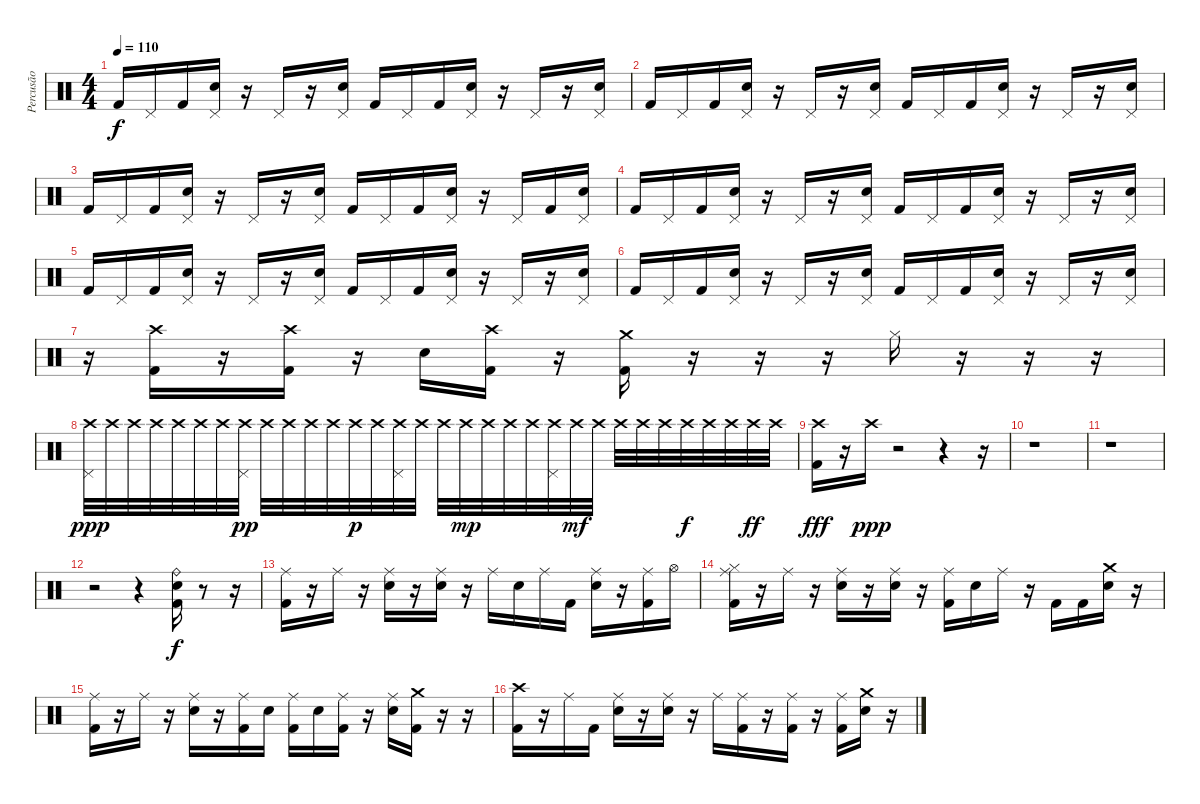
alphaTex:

\track ("Percusão" "Percusão") {instrument percussion}
\staff {score}
\articulation defaults
\ts (4 4)
\tempo 110
\clef neutral
\ks c "Kick (hit) 2".16{dy f} "Pedal Hi-Hat (hit)".16 "Kick (hit) 2".16
("Pedal Hi-Hat (hit)" "Snare (hit) 2").16 r.16 "Pedal Hi-Hat (hit)".16 r.16 ("Pedal Hi-Hat (hit)" "Snare (hit) 2").16 "Kick (hit) 2".16 "Pedal Hi-Hat (hit)".16 "Kick (hit) 2".16 ("Pedal Hi-Hat (hit)" "Snare (hit) 2").16 r.16 "Pedal Hi-Hat (hit)".16 r.16 ("Pedal Hi-Hat (hit)" "Snare (hit) 2").16 |
"Kick (hit) 2".16 "Pedal Hi-Hat (hit)".16 "Kick (hit) 2".16 ("Pedal Hi-Hat (hit)" "Snare (hit) 2").16 r.16 "Pedal Hi-Hat (hit)".16 r.16 ("Pedal Hi-Hat (hit)" "Snare (hit) 2").16 "Kick (hit) 2".16 "Pedal Hi-Hat (hit)".16 "Kick (hit) 2".16 ("Pedal Hi-Hat (hit)" "Snare (hit) 2").16 r.16 "Pedal Hi-Hat (hit)".16 r.16 ("Pedal Hi-Hat (hit)" "Snare (hit) 2").16 |
"Kick (hit) 2".16 "Pedal Hi-Hat (hit)".16 "Kick (hit) 2".16 ("Pedal Hi-Hat (hit)" "Snare (hit) 2").16 r.16 "Pedal Hi-Hat (hit)".16 r.16 ("Pedal Hi-Hat (hit)" "Snare (hit) 2").16 "Kick (hit) 2".16 "Pedal Hi-Hat (hit)".16 "Kick (hit) 2".16 ("Pedal Hi-Hat (hit)" "Snare (hit) 2").16 r.16 "Pedal Hi-Hat (hit)".16 "Kick (hit) 2".16 ("Pedal Hi-Hat (hit)" "Snare (hit) 2").16 |
"Kick (hit) 2".16 "Pedal Hi-Hat (hit)".16 "Kick (hit) 2".16 ("Pedal Hi-Hat (hit)" "Snare (hit) 2").16 r.16 "Pedal Hi-Hat (hit)".16 r.16 ("Pedal Hi-Hat (hit)" "Snare (hit) 2").16 "Kick (hit) 2".16 "Pedal Hi-Hat (hit)".16 "Kick (hit) 2".16 ("Pedal Hi-Hat (hit)" "Snare (hit) 2").16 r.16 "Pedal Hi-Hat (hit)".16 r.16 ("Pedal Hi-Hat (hit)" "Snare (hit) 2").16 |
"Kick (hit) 2".16 "Pedal Hi-Hat (hit)".16 "Kick (hit) 2".16 ("Pedal Hi-Hat (hit)" "Snare (hit) 2").16 r.16 "Pedal Hi-Hat (hit)".16 r.16 ("Pedal Hi-Hat (hit)" "Snare (hit) 2").16 "Kick (hit) 2".16 "Pedal Hi-Hat (hit)".16 "Kick (hit) 2".16 ("Pedal Hi-Hat (hit)" "Snare (hit) 2").16 r.16 "Pedal Hi-Hat (hit)".16 r.16 ("Pedal Hi-Hat (hit)" "Snare (hit) 2").16 |
"Kick (hit) 2".16 "Pedal Hi-Hat (hit)".16 "Kick (hit) 2".16 ("Pedal Hi-Hat (hit)" "Snare (hit) 2").16 r.16 "Pedal Hi-Hat (hit)".16 r.16 ("Pedal Hi-Hat (hit)" "Snare (hit) 2").16 "Kick (hit) 2".16 "Pedal Hi-Hat (hit)".16 "Kick (hit) 2".16 ("Pedal Hi-Hat (hit)" "Snare (hit) 2").16 r.16 "Pedal Hi-Hat (hit)".16 r.16 ("Pedal Hi-Hat (hit)" "Snare (hit) 2").16 |
r.16 ("Crash high (hit)" "Kick (hit) 2").16 r.16 ("Crash high (hit)" "Kick (hit) 2").16 r.16 "Snare (hit) 2".16 ("Crash high (hit)" "Kick (hit) 2").16 r.16 ("Crash medium (hit)" "Kick (hit) 2").16 r.16 r.16 r.16 "Hi-Hat (closed)".16 r.16 r.16 r.16 |
("Crash high (hit)" "Pedal Hi-Hat (hit)").32{dy ppp} "Crash high (hit)".32 "Crash high (hit)".32 "Crash high (hit)".32 "Crash high (hit)".32 "Crash high (hit)".32 "Crash high (hit)".32 ("Crash high (hit)" "Pedal Hi-Hat (hit)").32{dy pp} "Crash high (hit)".32 "Crash high (hit)".32 "Crash high (hit)".32 "Crash high (hit)".32 "Crash high (hit)".32{dy p} "Crash high (hit)".32 ("Crash high (hit)" "Pedal Hi-Hat (hit)").32 "Crash high (hit)".32 "Crash high (hit)".32 "Crash high (hit)".32{dy mp} "Crash high (hit)".32 "Crash high (hit)".32 "Crash high (hit)".32 ("Crash high (hit)" "Pedal Hi-Hat (hit)").32 "Crash high (hit)".32{dy mf} "Crash high (hit)".32 "Crash high (hit)".32 "Crash high (hit)".32 "Crash high (hit)".32 "Crash high (hit)".32{dy f} "Crash high (hit)".32 "Crash high (hit)".32 "Crash high (hit)".32{dy ff} "Crash high (hit)".32 |
("Crash high (hit)" "Kick (hit) 2").16{dy fff} r.16 "Crash high (hit)".16{dy ppp} r.2 r.4 r.16 |
r.1 |
r.1 |
r.2 r.4 ("Ride (bell)" "Snare (hit) 2" "Kick (hit) 2").16{dy f} r.8 r.16 |
("Ride (middle)" "Kick (hit) 2").16 r.16 "Ride (middle)".16 r.16 ("Ride (middle)" "Snare (hit) 2").16 r.16 ("Ride (middle)" "Snare (hit) 2").16 r.16 "Ride (middle)".16 "Snare (hit) 2".16 "Ride (middle)".16 "Kick (hit) 2".16 ("Ride (middle)" "Snare (hit) 2").16 r.16 ("Ride (middle)" "Kick (hit) 2").16 "Hi-Hat (open)".16 |
("Ride (middle)" "Hi-Hat (closed)" "Kick (hit) 2").16 r.16 "Ride (middle)".16 r.16 ("Ride (middle)" "Snare (hit) 2").16 r.16 ("Ride (middle)" "Snare (hit) 2").16 r.16 ("Ride (middle)" "Kick (hit) 2").16 "Snare (hit) 2".16 "Ride (middle)".16 r.16 "Kick (hit) 2".16 "Kick (hit) 2".16 ("Crash medium (hit)" "Snare (hit) 2").16 r.16 |
("Ride (middle)" "Kick (hit) 2").16 r.16 "Ride (middle)".16 r.16 ("Ride (middle)" "Snare (hit) 2").16 r.16 ("Ride (middle)" "Kick (hit) 2").16 "Snare (hit) 2".16 ("Ride (middle)" "Kick (hit) 2").16 "Snare (hit) 2".16 ("Ride (middle)" "Kick (hit) 2").16 r.16 ("Ride (middle)" "Snare (hit) 2").16 ("Crash medium (hit)" "Kick (hit) 2").16 r.16 r.16 |
("Crash high (hit)" "Kick (hit) 2").16 r.16 "Ride (middle)".16 "Kick (hit) 2".16 ("Ride (middle)" "Snare (hit) 2").16 r.16 ("Ride (middle)" "Snare (hit) 2").16 r.16 "Ride (middle)".16 ("Ride (middle)" "Kick (hit) 2").16 r.16 ("Ride (middle)" "Kick (hit) 2").16 r.16 ("Ride (middle)" "Kick (hit) 2").16 ("Crash medium (hit)" "Snare (hit) 2").16 r.16
